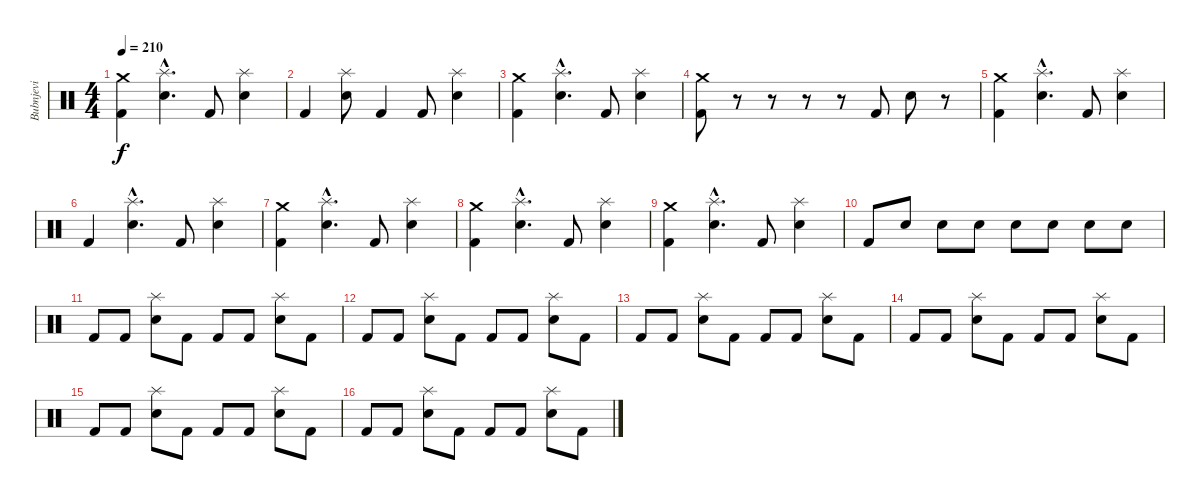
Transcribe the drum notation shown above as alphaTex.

\track ("Bubnjevi" "Bubnjevi") {instrument percussion}
\staff {score}
\articulation defaults
\ts (4 4)
\tempo 210
\clef neutral
\ks c
("Crash medium (hit)" "Kick (hit) 2").4{dy f} ("Splash (hit)"{hac} "Electric Snare (hit)"{hac}).4{d} "Kick (hit) 2".8 ("Splash (hit)" "Electric Snare (hit)").4 |
"Kick (hit) 2".4 ("Splash (hit)" "Electric Snare (hit)").8 "Kick (hit) 2".4 "Kick (hit) 2".8 ("Splash (hit)" "Electric Snare (hit)").4 |
("Crash medium (hit)" "Kick (hit) 2").4 ("Splash (hit)"{hac} "Electric Snare (hit)"{hac}).4{d} "Kick (hit) 2".8 ("Splash (hit)" "Electric Snare (hit)").4 |
("Crash medium (hit)" "Kick (hit) 2").8 r.8 r.8 r.8 r.8 "Kick (hit) 2".8 "Electric Snare (hit)".8 r.8 |
("Crash medium (hit)" "Kick (hit) 2").4 ("Splash (hit)"{hac} "Electric Snare (hit)"{hac}).4{d} "Kick (hit) 2".8 ("Splash (hit)" "Electric Snare (hit)").4 |
"Kick (hit) 2".4 ("Splash (hit)"{hac} "Electric Snare (hit)"{hac}).4{d} "Kick (hit) 2".8 ("Splash (hit)" "Electric Snare (hit)").4 |
("Crash medium (hit)" "Kick (hit) 2").4 ("Splash (hit)"{hac} "Electric Snare (hit)"{hac}).4{d} "Kick (hit) 2".8 ("Splash (hit)" "Electric Snare (hit)").4 |
("Crash medium (hit)" "Kick (hit) 2").4 ("Splash (hit)"{hac} "Electric Snare (hit)"{hac}).4{d} "Kick (hit) 2".8 ("Splash (hit)" "Electric Snare (hit)").4 |
("Crash medium (hit)" "Kick (hit) 2").4 ("Splash (hit)"{hac} "Electric Snare (hit)"{hac}).4{d} "Kick (hit) 2".8 ("Splash (hit)" "Electric Snare (hit)").4 |
"Kick (hit) 2".8 "Electric Snare (hit)".8 "Electric Snare (hit)".8 "Electric Snare (hit)".8 "Electric Snare (hit)".8 "Electric Snare (hit)".8 "Electric Snare (hit)".8 "Electric Snare (hit)".8 |
"Kick (hit) 2".8 "Kick (hit) 2".8 ("Splash (hit)" "Electric Snare (hit)").8 "Kick (hit) 2".8 "Kick (hit) 2".8 "Kick (hit) 2".8 ("Splash (hit)" "Electric Snare (hit)").8 "Kick (hit) 2".8 |
"Kick (hit) 2".8 "Kick (hit) 2".8 ("Splash (hit)" "Electric Snare (hit)").8 "Kick (hit) 2".8 "Kick (hit) 2".8 "Kick (hit) 2".8 ("Splash (hit)" "Electric Snare (hit)").8 "Kick (hit) 2".8 |
"Kick (hit) 2".8 "Kick (hit) 2".8 ("Splash (hit)" "Electric Snare (hit)").8 "Kick (hit) 2".8 "Kick (hit) 2".8 "Kick (hit) 2".8 ("Splash (hit)" "Electric Snare (hit)").8 "Kick (hit) 2".8 |
"Kick (hit) 2".8 "Kick (hit) 2".8 ("Splash (hit)" "Electric Snare (hit)").8 "Kick (hit) 2".8 "Kick (hit) 2".8 "Kick (hit) 2".8 ("Splash (hit)" "Electric Snare (hit)").8 "Kick (hit) 2".8 |
"Kick (hit) 2".8 "Kick (hit) 2".8 ("Splash (hit)" "Electric Snare (hit)").8 "Kick (hit) 2".8 "Kick (hit) 2".8 "Kick (hit) 2".8 ("Splash (hit)" "Electric Snare (hit)").8 "Kick (hit) 2".8 |
"Kick (hit) 2".8 "Kick (hit) 2".8 ("Splash (hit)" "Electric Snare (hit)").8 "Kick (hit) 2".8 "Kick (hit) 2".8 "Kick (hit) 2".8 ("Splash (hit)" "Electric Snare (hit)").8 "Kick (hit) 2".8
